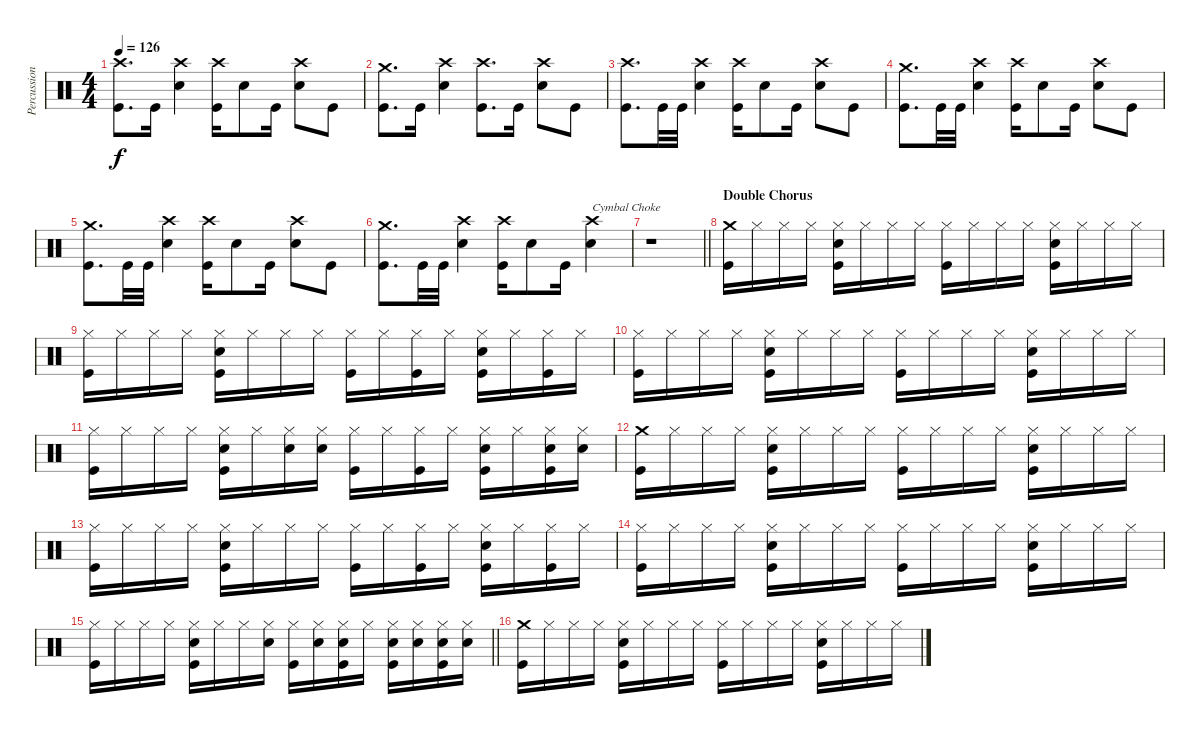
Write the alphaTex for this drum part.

\track ("Percussion" "Percussion") {instrument percussion}
\staff {score}
\articulation defaults
\ts (4 4)
\tempo 126
\clef neutral
\ks c
("Crash high (hit)" "Kick (hit)").8{d dy f} "Kick (hit)".16 ("Crash high (hit)" "Electric Snare (hit)").4 ("Crash high (hit)" "Kick (hit)").16 "Electric Snare (hit)".8 "Kick (hit)".16 ("Crash high (hit)" "Electric Snare (hit)").8 "Kick (hit)".8 |
("Crash medium (hit)" "Kick (hit)").8{d} "Kick (hit)".16 ("Crash high (hit)" "Electric Snare (hit)").4 ("Crash high (hit)" "Kick (hit)").8{d} "Kick (hit)".16 ("Crash high (hit)" "Electric Snare (hit)").8 "Kick (hit)".8 |
("Crash high (hit)" "Kick (hit)").8{d} "Kick (hit)".32 "Kick (hit)".32 ("Crash high (hit)" "Electric Snare (hit)").4 ("Crash high (hit)" "Kick (hit)").16 "Electric Snare (hit)".8 "Kick (hit)".16 ("Crash high (hit)" "Electric Snare (hit)").8 "Kick (hit)".8 |
("Crash medium (hit)" "Kick (hit)").8{d} "Kick (hit)".32 "Kick (hit)".32 ("Crash high (hit)" "Electric Snare (hit)").4 ("Crash high (hit)" "Kick (hit)").16 "Electric Snare (hit)".8 "Kick (hit)".16 ("Crash high (hit)" "Electric Snare (hit)").8 "Kick (hit)".8 |
("Crash medium (hit)" "Kick (hit)").8{d} "Kick (hit)".32 "Kick (hit)".32 ("Crash high (hit)" "Electric Snare (hit)").4 ("Crash high (hit)" "Kick (hit)").16 "Electric Snare (hit)".8 "Kick (hit)".16 ("Crash high (hit)" "Electric Snare (hit)").8 "Kick (hit)".8 |
("Crash medium (hit)" "Kick (hit)").8{d} "Kick (hit)".32 "Kick (hit)".32 ("Crash high (hit)" "Electric Snare (hit)").4 ("Crash high (hit)" "Kick (hit)").16 "Electric Snare (hit)".8 "Kick (hit)".16 ("Crash high (hit)" "Electric Snare (hit)").4{txt "Cymbal Choke"} |
\barLineRight lightlight
r.1{volume 0} |
\section ("" "Double Chorus")
("Crash medium (hit)" "Kick (hit)").16{volume 16} "Hi-Hat (closed)".16 "Hi-Hat (closed)".16 "Hi-Hat (closed)".16 ("Hi-Hat (closed)" "Electric Snare (hit)" "Kick (hit)").16 "Hi-Hat (closed)".16 "Hi-Hat (closed)".16 "Hi-Hat (closed)".16 ("Hi-Hat (closed)" "Kick (hit)").16 "Hi-Hat (closed)".16 "Hi-Hat (closed)".16 "Hi-Hat (closed)".16 ("Hi-Hat (closed)" "Electric Snare (hit)" "Kick (hit)").16 "Hi-Hat (closed)".16 "Hi-Hat (closed)".16 "Hi-Hat (closed)".16 |
("Hi-Hat (closed)" "Kick (hit)").16 "Hi-Hat (closed)".16 "Hi-Hat (closed)".16 "Hi-Hat (closed)".16 ("Hi-Hat (closed)" "Electric Snare (hit)" "Kick (hit)").16 "Hi-Hat (closed)".16 "Hi-Hat (closed)".16 "Hi-Hat (closed)".16 ("Hi-Hat (closed)" "Kick (hit)").16 "Hi-Hat (closed)".16 ("Hi-Hat (closed)" "Kick (hit)").16 "Hi-Hat (closed)".16 ("Hi-Hat (closed)" "Electric Snare (hit)" "Kick (hit)").16 "Hi-Hat (closed)".16 ("Hi-Hat (closed)" "Kick (hit)").16 "Hi-Hat (closed)".16 |
("Hi-Hat (closed)" "Kick (hit)").16 "Hi-Hat (closed)".16 "Hi-Hat (closed)".16 "Hi-Hat (closed)".16 ("Hi-Hat (closed)" "Electric Snare (hit)" "Kick (hit)").16 "Hi-Hat (closed)".16 "Hi-Hat (closed)".16 "Hi-Hat (closed)".16 ("Hi-Hat (closed)" "Kick (hit)").16 "Hi-Hat (closed)".16 "Hi-Hat (closed)".16 "Hi-Hat (closed)".16 ("Hi-Hat (closed)" "Electric Snare (hit)" "Kick (hit)").16 "Hi-Hat (closed)".16 "Hi-Hat (closed)".16 "Hi-Hat (closed)".16 |
("Hi-Hat (closed)" "Kick (hit)").16 "Hi-Hat (closed)".16 "Hi-Hat (closed)".16 "Hi-Hat (closed)".16 ("Hi-Hat (closed)" "Electric Snare (hit)" "Kick (hit)").16 "Hi-Hat (closed)".16 ("Hi-Hat (closed)" "Electric Snare (hit)").16 ("Hi-Hat (closed)" "Electric Snare (hit)").16 ("Hi-Hat (closed)" "Kick (hit)").16 "Hi-Hat (closed)".16 ("Hi-Hat (closed)" "Kick (hit)").16 "Hi-Hat (closed)".16 ("Hi-Hat (closed)" "Electric Snare (hit)" "Kick (hit)").16 "Hi-Hat (closed)".16 ("Hi-Hat (closed)" "Electric Snare (hit)" "Kick (hit)").16 ("Hi-Hat (closed)" "Electric Snare (hit)").16 |
("Crash medium (hit)" "Kick (hit)").16 "Hi-Hat (closed)".16 "Hi-Hat (closed)".16 "Hi-Hat (closed)".16 ("Hi-Hat (closed)" "Electric Snare (hit)" "Kick (hit)").16 "Hi-Hat (closed)".16 "Hi-Hat (closed)".16 "Hi-Hat (closed)".16 ("Hi-Hat (closed)" "Kick (hit)").16 "Hi-Hat (closed)".16 "Hi-Hat (closed)".16 "Hi-Hat (closed)".16 ("Hi-Hat (closed)" "Electric Snare (hit)" "Kick (hit)").16 "Hi-Hat (closed)".16 "Hi-Hat (closed)".16 "Hi-Hat (closed)".16 |
("Hi-Hat (closed)" "Kick (hit)").16 "Hi-Hat (closed)".16 "Hi-Hat (closed)".16 "Hi-Hat (closed)".16 ("Hi-Hat (closed)" "Electric Snare (hit)" "Kick (hit)").16 "Hi-Hat (closed)".16 "Hi-Hat (closed)".16 "Hi-Hat (closed)".16 ("Hi-Hat (closed)" "Kick (hit)").16 "Hi-Hat (closed)".16 ("Hi-Hat (closed)" "Kick (hit)").16 "Hi-Hat (closed)".16 ("Hi-Hat (closed)" "Electric Snare (hit)" "Kick (hit)").16 "Hi-Hat (closed)".16 ("Hi-Hat (closed)" "Kick (hit)").16 "Hi-Hat (closed)".16 |
("Hi-Hat (closed)" "Kick (hit)").16 "Hi-Hat (closed)".16 "Hi-Hat (closed)".16 "Hi-Hat (closed)".16 ("Hi-Hat (closed)" "Electric Snare (hit)" "Kick (hit)").16 "Hi-Hat (closed)".16 "Hi-Hat (closed)".16 "Hi-Hat (closed)".16 ("Hi-Hat (closed)" "Kick (hit)").16 "Hi-Hat (closed)".16 "Hi-Hat (closed)".16 "Hi-Hat (closed)".16 ("Hi-Hat (closed)" "Electric Snare (hit)" "Kick (hit)").16 "Hi-Hat (closed)".16 "Hi-Hat (closed)".16 "Hi-Hat (closed)".16 |
\barLineRight lightlight
("Hi-Hat (closed)" "Kick (hit)").16 "Hi-Hat (closed)".16 "Hi-Hat (closed)".16 "Hi-Hat (closed)".16 ("Hi-Hat (closed)" "Electric Snare (hit)" "Kick (hit)").16 "Hi-Hat (closed)".16 "Hi-Hat (closed)".16 ("Hi-Hat (closed)" "Electric Snare (hit)").16 ("Hi-Hat (closed)" "Kick (hit)").16 ("Hi-Hat (closed)" "Electric Snare (hit)").16 ("Hi-Hat (closed)" "Electric Snare (hit)" "Kick (hit)").16 "Hi-Hat (closed)".16 ("Hi-Hat (closed)" "Electric Snare (hit)" "Kick (hit)").16 ("Hi-Hat (closed)" "Electric Snare (hit)").16 ("Hi-Hat (closed)" "Electric Snare (hit)" "Kick (hit)").16 ("Hi-Hat (closed)" "Electric Snare (hit)").16 |
("Crash medium (hit)" "Kick (hit)").16 "Hi-Hat (closed)".16 "Hi-Hat (closed)".16 "Hi-Hat (closed)".16 ("Hi-Hat (closed)" "Electric Snare (hit)" "Kick (hit)").16 "Hi-Hat (closed)".16 "Hi-Hat (closed)".16 "Hi-Hat (closed)".16 ("Hi-Hat (closed)" "Kick (hit)").16 "Hi-Hat (closed)".16 "Hi-Hat (closed)".16 "Hi-Hat (closed)".16 ("Hi-Hat (closed)" "Electric Snare (hit)" "Kick (hit)").16 "Hi-Hat (closed)".16 "Hi-Hat (closed)".16 "Hi-Hat (closed)".16
